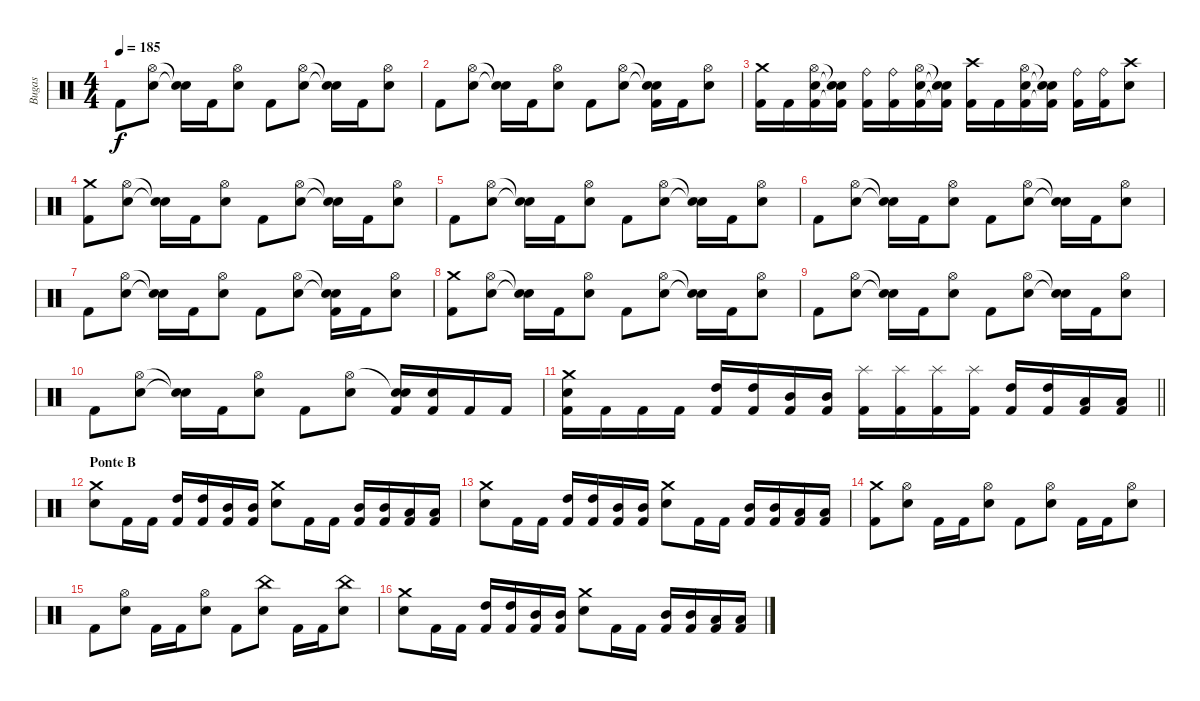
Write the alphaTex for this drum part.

\track ("Bugas" "Bugas") {instrument percussion}
\staff {score}
\articulation defaults
\ts (4 4)
\tempo 185
\clef neutral
\ks c "Kick (hit) 2".8{dy f}
("Hi-Hat (open)" "Electric Snare (hit)").8 ("Snare (hit)"{t} "Snare (hit)"{t}).16 "Kick (hit) 2".16 ("Hi-Hat (open)" "Electric Snare (hit)").8 "Kick (hit) 2".8 ("Hi-Hat (open)" "Electric Snare (hit)").8 ("Snare (hit)"{t} "Snare (hit)"{t}).16 "Kick (hit) 2".16 ("Hi-Hat (open)" "Electric Snare (hit)").8 |
"Kick (hit) 2".8 ("Hi-Hat (open)" "Electric Snare (hit)").8 ("Snare (hit)"{t} "Snare (hit)"{t}).16 "Kick (hit) 2".16 ("Hi-Hat (open)" "Electric Snare (hit)").8 "Kick (hit) 2".8 ("Hi-Hat (open)" "Electric Snare (hit)").8 ("Snare (hit)"{t} "Snare (hit)"{t} "Kick (hit) 2").16 "Kick (hit) 2".16 ("Hi-Hat (open)" "Electric Snare (hit)").8 |
("Crash medium (hit)" "Kick (hit) 2").16 "Kick (hit) 2".16 ("Hi-Hat (open)" "Electric Snare (hit)" "Kick (hit) 2").16 ("Snare (hit)"{t} "Snare (hit)"{t} "Kick (hit) 2"{t}).16 ("Ride (bell)" "Kick (hit) 2").16 ("Ride (bell)" "Kick (hit) 2").16 ("Hi-Hat (open)" "Electric Snare (hit)" "Kick (hit) 2").16 ("Snare (hit)"{t} "Snare (hit)"{t} "Kick (hit) 2"{t}).16 ("Crash high (hit)" "Kick (hit) 2").16 "Kick (hit) 2".16 ("Hi-Hat (open)" "Electric Snare (hit)" "Kick (hit) 2").16 ("Snare (hit)"{t} "Snare (hit)"{t} "Kick (hit) 2"{t}).16 ("Ride (bell)" "Kick (hit) 2").16 ("Ride (bell)" "Kick (hit) 2").16 ("Crash high (hit)" "Electric Snare (hit)").8 |
("Crash medium (hit)" "Kick (hit) 2").8 ("Hi-Hat (open)" "Electric Snare (hit)").8 ("Snare (hit)"{t} "Snare (hit)"{t}).16 "Kick (hit) 2".16 ("Hi-Hat (open)" "Electric Snare (hit)").8 "Kick (hit) 2".8 ("Hi-Hat (open)" "Electric Snare (hit)").8 ("Snare (hit)"{t} "Snare (hit)"{t}).16 "Kick (hit) 2".16 ("Hi-Hat (open)" "Electric Snare (hit)").8 |
"Kick (hit) 2".8 ("Hi-Hat (open)" "Electric Snare (hit)").8 ("Snare (hit)"{t} "Snare (hit)"{t}).16 "Kick (hit) 2".16 ("Hi-Hat (open)" "Electric Snare (hit)").8 "Kick (hit) 2".8 ("Hi-Hat (open)" "Electric Snare (hit)").8 ("Snare (hit)"{t} "Snare (hit)"{t}).16 "Kick (hit) 2".16 ("Hi-Hat (open)" "Electric Snare (hit)").8 |
"Kick (hit) 2".8 ("Hi-Hat (open)" "Electric Snare (hit)").8 ("Snare (hit)"{t} "Snare (hit)"{t}).16 "Kick (hit) 2".16 ("Hi-Hat (open)" "Electric Snare (hit)").8 "Kick (hit) 2".8 ("Hi-Hat (open)" "Electric Snare (hit)").8 ("Snare (hit)"{t} "Snare (hit)"{t}).16 "Kick (hit) 2".16 ("Hi-Hat (open)" "Electric Snare (hit)").8 |
"Kick (hit) 2".8 ("Hi-Hat (open)" "Electric Snare (hit)").8 ("Snare (hit)"{t} "Snare (hit)"{t}).16 "Kick (hit) 2".16 ("Hi-Hat (open)" "Electric Snare (hit)").8 "Kick (hit) 2".8 ("Hi-Hat (open)" "Electric Snare (hit)").8 ("Snare (hit)"{t} "Snare (hit)"{t} "Kick (hit) 2").16 "Kick (hit) 2".16 ("Hi-Hat (open)" "Electric Snare (hit)").8 |
("Crash medium (hit)" "Kick (hit) 2").8 ("Hi-Hat (open)" "Electric Snare (hit)").8 ("Snare (hit)"{t} "Snare (hit)"{t}).16 "Kick (hit) 2".16 ("Hi-Hat (open)" "Electric Snare (hit)").8 "Kick (hit) 2".8 ("Hi-Hat (open)" "Electric Snare (hit)").8 ("Snare (hit)"{t} "Snare (hit)"{t}).16 "Kick (hit) 2".16 ("Hi-Hat (open)" "Electric Snare (hit)").8 |
"Kick (hit) 2".8 ("Hi-Hat (open)" "Electric Snare (hit)").8 ("Snare (hit)"{t} "Snare (hit)"{t}).16 "Kick (hit) 2".16 ("Hi-Hat (open)" "Electric Snare (hit)").8 "Kick (hit) 2".8 ("Hi-Hat (open)" "Electric Snare (hit)").8 ("Snare (hit)"{t} "Snare (hit)"{t}).16 "Kick (hit) 2".16 ("Hi-Hat (open)" "Electric Snare (hit)").8 |
"Kick (hit) 2".8 ("Hi-Hat (open)" "Electric Snare (hit)").8 ("Snare (hit)"{t} "Snare (hit)"{t}).16 "Kick (hit) 2".16 ("Hi-Hat (open)" "Electric Snare (hit)").8 "Kick (hit) 2".8 ("Hi-Hat (open)" "Electric Snare (hit)").8 ("Snare (hit)"{t} "Electric Snare (hit)" "Kick (hit) 2").16 ("Electric Snare (hit)" "Kick (hit) 2").16 "Kick (hit) 2".16 "Kick (hit) 2".16 |
\barLineRight lightlight
("Crash medium (hit)" "Electric Snare (hit)" "Kick (hit) 2").16 "Kick (hit) 2".16 "Kick (hit) 2".16 "Kick (hit) 2".16 ("High Tom (hit)" "Kick (hit) 2").16 ("High Tom (hit)" "Kick (hit) 2").16 ("Mid Tom (hit)" "Kick (hit) 2").16 ("Mid Tom (hit)" "Kick (hit) 2").16 ("Splash (hit)" "Kick (hit) 2").16 ("Splash (hit)" "Kick (hit) 2").16 ("Splash (hit)" "Kick (hit) 2").16 ("Splash (hit)" "Kick (hit) 2").16 ("High Tom (hit)" "Kick (hit) 2").16 ("High Tom (hit)" "Kick (hit) 2").16 ("Low Tom (hit)" "Kick (hit) 2").16 ("Low Tom (hit)" "Kick (hit) 2").16 |
\section ("" "Ponte B")
("Crash medium (hit)" "Electric Snare (hit)").8 "Kick (hit) 2".16 "Kick (hit) 2".16 ("High Tom (hit)" "Kick (hit) 2").16 ("High Tom (hit)" "Kick (hit) 2").16 ("Mid Tom (hit)" "Kick (hit) 2").16 ("Mid Tom (hit)" "Kick (hit) 2").16 ("Crash medium (hit)" "Electric Snare (hit)").8 "Kick (hit) 2".16 "Kick (hit) 2".16 ("Mid Tom (hit)" "Kick (hit) 2").16 ("Mid Tom (hit)" "Kick (hit) 2").16 ("Low Tom (hit)" "Kick (hit) 2").16 ("Low Tom (hit)" "Kick (hit) 2").16 |
("Crash medium (hit)" "Electric Snare (hit)").8 "Kick (hit) 2".16 "Kick (hit) 2".16 ("High Tom (hit)" "Kick (hit) 2").16 ("High Tom (hit)" "Kick (hit) 2").16 ("Mid Tom (hit)" "Kick (hit) 2").16 ("Mid Tom (hit)" "Kick (hit) 2").16 ("Crash medium (hit)" "Electric Snare (hit)").8 "Kick (hit) 2".16 "Kick (hit) 2".16 ("Mid Tom (hit)" "Kick (hit) 2").16 ("Mid Tom (hit)" "Kick (hit) 2").16 ("Low Tom (hit)" "Kick (hit) 2").16 ("Low Tom (hit)" "Kick (hit) 2").16 |
("Crash medium (hit)" "Kick (hit) 2").8 ("Hi-Hat (open)" "Electric Snare (hit)").8 "Kick (hit) 2".16 "Kick (hit) 2".16 ("Hi-Hat (open)" "Electric Snare (hit)").8 "Kick (hit) 2".8 ("Hi-Hat (open)" "Electric Snare (hit)").8 "Kick (hit) 2".16 "Kick (hit) 2".16 ("Hi-Hat (open)" "Electric Snare (hit)").8 |
"Kick (hit) 2".8 ("Hi-Hat (open)" "Electric Snare (hit)").8 "Kick (hit) 2".16 "Kick (hit) 2".16 ("Hi-Hat (open)" "Electric Snare (hit)").8 "Kick (hit) 2".8 ("China (hit)" "Electric Snare (hit)").8 "Kick (hit) 2".16 "Kick (hit) 2".16 ("China (hit)" "Electric Snare (hit)").8 |
("Crash medium (hit)" "Electric Snare (hit)").8 "Kick (hit) 2".16 "Kick (hit) 2".16 ("High Tom (hit)" "Kick (hit) 2").16 ("High Tom (hit)" "Kick (hit) 2").16 ("Mid Tom (hit)" "Kick (hit) 2").16 ("Mid Tom (hit)" "Kick (hit) 2").16 ("Crash medium (hit)" "Electric Snare (hit)").8 "Kick (hit) 2".16 "Kick (hit) 2".16 ("Mid Tom (hit)" "Kick (hit) 2").16 ("Mid Tom (hit)" "Kick (hit) 2").16 ("Low Tom (hit)" "Kick (hit) 2").16 ("Low Tom (hit)" "Kick (hit) 2").16
